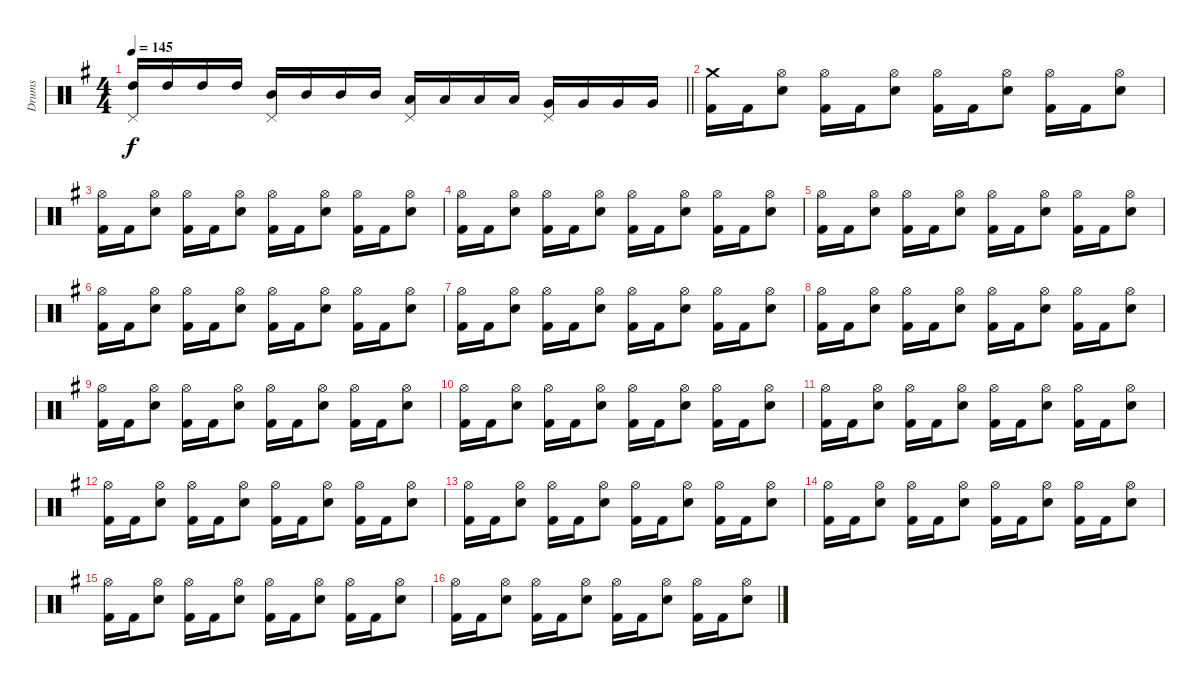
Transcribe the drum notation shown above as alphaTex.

\track ("Drums" "Drums") {instrument percussion}
\staff {score}
\articulation defaults
\ts (4 4)
\tempo 145
\clef neutral
\barLineRight lightlight
\ks eminor
("High Tom (hit)" "Pedal Hi-Hat (hit)").16{dy f} "High Tom (hit)".16 "High Tom (hit)".16 "High Tom (hit)".16 ("Mid Tom (hit)" "Pedal Hi-Hat (hit)").16 "Mid Tom (hit)".16 "Mid Tom (hit)".16 "Mid Tom (hit)".16 ("Low Tom (hit)" "Pedal Hi-Hat (hit)").16 "Low Tom (hit)".16 "Low Tom (hit)".16 "Low Tom (hit)".16 ("Very Low Tom (hit)" "Pedal Hi-Hat (hit)").16 "Very Low Tom (hit)".16 "Very Low Tom (hit)".16 "Very Low Tom (hit)".16 |
("Crash medium (hit)" "Kick (hit) 2").16 "Kick (hit) 2".16 ("Hi-Hat (open)" "Electric Snare (hit)").8 ("Hi-Hat (open)" "Kick (hit) 2").16 "Kick (hit) 2".16 ("Electric Snare (hit)" "Hi-Hat (open)").8 ("Kick (hit) 2" "Hi-Hat (open)").16 "Kick (hit) 2".16 ("Hi-Hat (open)" "Electric Snare (hit)").8 ("Hi-Hat (open)" "Kick (hit) 2").16 "Kick (hit) 2".16 ("Hi-Hat (open)" "Electric Snare (hit)").8 |
("Hi-Hat (open)" "Kick (hit) 2").16 "Kick (hit) 2".16 ("Hi-Hat (open)" "Electric Snare (hit)").8 ("Hi-Hat (open)" "Kick (hit) 2").16 "Kick (hit) 2".16 ("Electric Snare (hit)" "Hi-Hat (open)").8 ("Kick (hit) 2" "Hi-Hat (open)").16 "Kick (hit) 2".16 ("Hi-Hat (open)" "Electric Snare (hit)").8 ("Hi-Hat (open)" "Kick (hit) 2").16 "Kick (hit) 2".16 ("Hi-Hat (open)" "Electric Snare (hit)").8 |
("Hi-Hat (open)" "Kick (hit) 2").16 "Kick (hit) 2".16 ("Hi-Hat (open)" "Electric Snare (hit)").8 ("Hi-Hat (open)" "Kick (hit) 2").16 "Kick (hit) 2".16 ("Electric Snare (hit)" "Hi-Hat (open)").8 ("Kick (hit) 2" "Hi-Hat (open)").16 "Kick (hit) 2".16 ("Hi-Hat (open)" "Electric Snare (hit)").8 ("Hi-Hat (open)" "Kick (hit) 2").16 "Kick (hit) 2".16 ("Hi-Hat (open)" "Electric Snare (hit)").8 |
("Hi-Hat (open)" "Kick (hit) 2").16 "Kick (hit) 2".16 ("Hi-Hat (open)" "Electric Snare (hit)").8 ("Hi-Hat (open)" "Kick (hit) 2").16 "Kick (hit) 2".16 ("Electric Snare (hit)" "Hi-Hat (open)").8 ("Kick (hit) 2" "Hi-Hat (open)").16 "Kick (hit) 2".16 ("Hi-Hat (open)" "Electric Snare (hit)").8 ("Hi-Hat (open)" "Kick (hit) 2").16 "Kick (hit) 2".16 ("Hi-Hat (open)" "Electric Snare (hit)").8 |
("Hi-Hat (open)" "Kick (hit) 2").16 "Kick (hit) 2".16 ("Hi-Hat (open)" "Electric Snare (hit)").8 ("Hi-Hat (open)" "Kick (hit) 2").16 "Kick (hit) 2".16 ("Electric Snare (hit)" "Hi-Hat (open)").8 ("Kick (hit) 2" "Hi-Hat (open)").16 "Kick (hit) 2".16 ("Hi-Hat (open)" "Electric Snare (hit)").8 ("Hi-Hat (open)" "Kick (hit) 2").16 "Kick (hit) 2".16 ("Hi-Hat (open)" "Electric Snare (hit)").8 |
("Hi-Hat (open)" "Kick (hit) 2").16 "Kick (hit) 2".16 ("Hi-Hat (open)" "Electric Snare (hit)").8 ("Hi-Hat (open)" "Kick (hit) 2").16 "Kick (hit) 2".16 ("Electric Snare (hit)" "Hi-Hat (open)").8 ("Kick (hit) 2" "Hi-Hat (open)").16 "Kick (hit) 2".16 ("Hi-Hat (open)" "Electric Snare (hit)").8 ("Hi-Hat (open)" "Kick (hit) 2").16 "Kick (hit) 2".16 ("Hi-Hat (open)" "Electric Snare (hit)").8 |
("Hi-Hat (open)" "Kick (hit) 2").16 "Kick (hit) 2".16 ("Hi-Hat (open)" "Electric Snare (hit)").8 ("Hi-Hat (open)" "Kick (hit) 2").16 "Kick (hit) 2".16 ("Electric Snare (hit)" "Hi-Hat (open)").8 ("Kick (hit) 2" "Hi-Hat (open)").16 "Kick (hit) 2".16 ("Hi-Hat (open)" "Electric Snare (hit)").8 ("Hi-Hat (open)" "Kick (hit) 2").16 "Kick (hit) 2".16 ("Hi-Hat (open)" "Electric Snare (hit)").8 |
("Hi-Hat (open)" "Kick (hit) 2").16 "Kick (hit) 2".16 ("Hi-Hat (open)" "Electric Snare (hit)").8 ("Hi-Hat (open)" "Kick (hit) 2").16 "Kick (hit) 2".16 ("Electric Snare (hit)" "Hi-Hat (open)").8 ("Kick (hit) 2" "Hi-Hat (open)").16 "Kick (hit) 2".16 ("Hi-Hat (open)" "Electric Snare (hit)").8 ("Hi-Hat (open)" "Kick (hit) 2").16 "Kick (hit) 2".16 ("Hi-Hat (open)" "Electric Snare (hit)").8 |
("Hi-Hat (open)" "Kick (hit) 2").16 "Kick (hit) 2".16 ("Hi-Hat (open)" "Electric Snare (hit)").8 ("Hi-Hat (open)" "Kick (hit) 2").16 "Kick (hit) 2".16 ("Electric Snare (hit)" "Hi-Hat (open)").8 ("Kick (hit) 2" "Hi-Hat (open)").16 "Kick (hit) 2".16 ("Hi-Hat (open)" "Electric Snare (hit)").8 ("Hi-Hat (open)" "Kick (hit) 2").16 "Kick (hit) 2".16 ("Hi-Hat (open)" "Electric Snare (hit)").8 |
("Hi-Hat (open)" "Kick (hit) 2").16 "Kick (hit) 2".16 ("Hi-Hat (open)" "Electric Snare (hit)").8 ("Hi-Hat (open)" "Kick (hit) 2").16 "Kick (hit) 2".16 ("Electric Snare (hit)" "Hi-Hat (open)").8 ("Kick (hit) 2" "Hi-Hat (open)").16 "Kick (hit) 2".16 ("Hi-Hat (open)" "Electric Snare (hit)").8 ("Hi-Hat (open)" "Kick (hit) 2").16 "Kick (hit) 2".16 ("Hi-Hat (open)" "Electric Snare (hit)").8 |
("Hi-Hat (open)" "Kick (hit) 2").16 "Kick (hit) 2".16 ("Hi-Hat (open)" "Electric Snare (hit)").8 ("Hi-Hat (open)" "Kick (hit) 2").16 "Kick (hit) 2".16 ("Electric Snare (hit)" "Hi-Hat (open)").8 ("Kick (hit) 2" "Hi-Hat (open)").16 "Kick (hit) 2".16 ("Hi-Hat (open)" "Electric Snare (hit)").8 ("Hi-Hat (open)" "Kick (hit) 2").16 "Kick (hit) 2".16 ("Hi-Hat (open)" "Electric Snare (hit)").8 |
("Hi-Hat (open)" "Kick (hit) 2").16 "Kick (hit) 2".16 ("Hi-Hat (open)" "Electric Snare (hit)").8 ("Hi-Hat (open)" "Kick (hit) 2").16 "Kick (hit) 2".16 ("Electric Snare (hit)" "Hi-Hat (open)").8 ("Kick (hit) 2" "Hi-Hat (open)").16 "Kick (hit) 2".16 ("Hi-Hat (open)" "Electric Snare (hit)").8 ("Hi-Hat (open)" "Kick (hit) 2").16 "Kick (hit) 2".16 ("Hi-Hat (open)" "Electric Snare (hit)").8 |
("Hi-Hat (open)" "Kick (hit) 2").16 "Kick (hit) 2".16 ("Hi-Hat (open)" "Electric Snare (hit)").8 ("Hi-Hat (open)" "Kick (hit) 2").16 "Kick (hit) 2".16 ("Electric Snare (hit)" "Hi-Hat (open)").8 ("Kick (hit) 2" "Hi-Hat (open)").16 "Kick (hit) 2".16 ("Hi-Hat (open)" "Electric Snare (hit)").8 ("Hi-Hat (open)" "Kick (hit) 2").16 "Kick (hit) 2".16 ("Hi-Hat (open)" "Electric Snare (hit)").8 |
("Hi-Hat (open)" "Kick (hit) 2").16 "Kick (hit) 2".16 ("Hi-Hat (open)" "Electric Snare (hit)").8 ("Hi-Hat (open)" "Kick (hit) 2").16 "Kick (hit) 2".16 ("Electric Snare (hit)" "Hi-Hat (open)").8 ("Kick (hit) 2" "Hi-Hat (open)").16 "Kick (hit) 2".16 ("Hi-Hat (open)" "Electric Snare (hit)").8 ("Hi-Hat (open)" "Kick (hit) 2").16 "Kick (hit) 2".16 ("Hi-Hat (open)" "Electric Snare (hit)").8 |
("Hi-Hat (open)" "Kick (hit) 2").16 "Kick (hit) 2".16 ("Hi-Hat (open)" "Electric Snare (hit)").8 ("Hi-Hat (open)" "Kick (hit) 2").16 "Kick (hit) 2".16 ("Electric Snare (hit)" "Hi-Hat (open)").8 ("Kick (hit) 2" "Hi-Hat (open)").16 "Kick (hit) 2".16 ("Hi-Hat (open)" "Electric Snare (hit)").8 ("Hi-Hat (open)" "Kick (hit) 2").16 "Kick (hit) 2".16 ("Hi-Hat (open)" "Electric Snare (hit)").8
